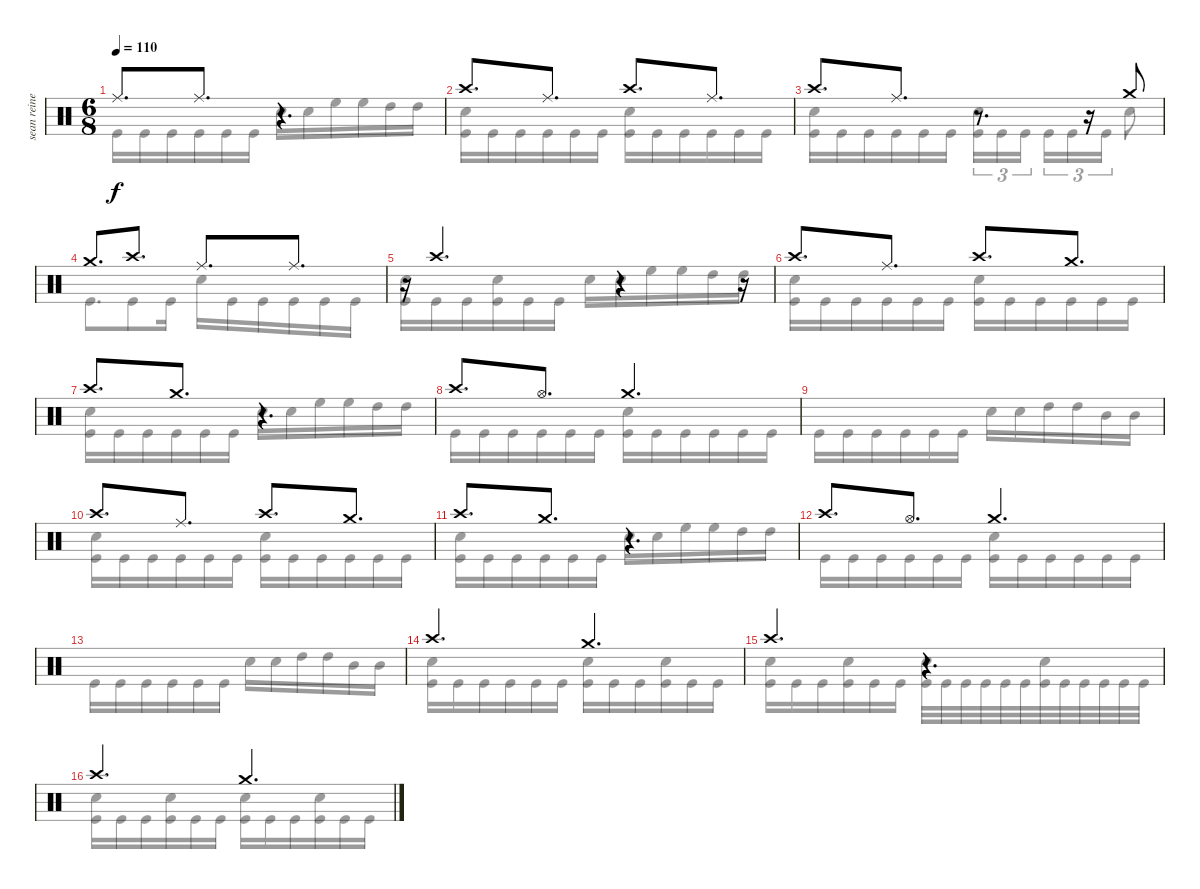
\track ("sean reinert" "sean reine") {instrument percussion}
\staff {score}
\articulation defaults
\voice
\ts (6 8)
\tempo 110
\clef neutral
\ks c "Ride (middle)".8{d dy f} "Ride (middle)".8{d}
r.4{d} |
"Crash high (hit)".8{d} "Ride (middle)".8{d} "Crash high (hit)".8{d} "Ride (middle)".8{d} |
"Crash high (hit)".8{d} "Ride (middle)".8{d} r.8{d} r.16 "Crash medium (hit)".8 |
"Crash medium (hit)".8{d} "Crash high (hit)".8{d} "Ride (middle)".8{d} "Ride (middle)".8{d} |
r.16 "Crash high (hit)".4{d} r.4 r.16 |
"Crash high (hit)".8{d} "Ride (middle)".8{d} "Crash high (hit)".8{d} "Crash medium (hit)".8{d} |
"Crash high (hit)".8{d} "Crash medium (hit)".8{d} r.4{d} |
"Crash high (hit)".8{d} "Hi-Hat (open)".8{d} "Crash medium (hit)".4{d} |
|
"Crash high (hit)".8{d} "Ride (middle)".8{d} "Crash high (hit)".8{d} "Crash medium (hit)".8{d} |
"Crash high (hit)".8{d} "Crash medium (hit)".8{d} r.4{d} |
"Crash high (hit)".8{d} "Hi-Hat (open)".8{d} "Crash medium (hit)".4{d} |
|
"Crash high (hit)".4{d} "Crash medium (hit)".4{d} |
"Crash high (hit)".4{d} r.4{d} |
"Crash high (hit)".4{d} "Crash medium (hit)".4{d}
\voice
\clef neutral
\ottava regular
\simile none
\ks c "Kick (hit)".16{dy f} "Kick (hit)".16 "Kick (hit)".16 "Kick (hit)".16 "Kick (hit)".16 "Kick (hit)".16 "Snare (hit) 2".16 "Snare (hit) 2".16 "High Floor Tom (hit)".16 "High Floor Tom (hit)".16 "High Tom (hit)".16 "High Tom (hit)".16
|
("Snare (hit) 2" "Kick (hit)").16 "Kick (hit)".16 "Kick (hit)".16 "Kick (hit)".16 "Kick (hit)".16 "Kick (hit)".16 ("Snare (hit) 2" "Kick (hit)").16 "Kick (hit)".16 "Kick (hit)".16 "Kick (hit)".16 "Kick (hit)".16 "Kick (hit)".16 |
("Snare (hit) 2" "Kick (hit)").16 "Kick (hit)".16 "Kick (hit)".16 "Kick (hit)".16 "Kick (hit)".16 "Kick (hit)".16 ("Snare (hit) 2" "Kick (hit)").16{tu (3 2)} "Kick (hit)".16{tu (3 2)} "Kick (hit)".16{tu (3 2) beam splitsecondary} "Kick (hit)".16{tu (3 2)} "Kick (hit)".16{tu (3 2)} "Kick (hit)".16{tu (3 2)} "Snare (hit) 2".8 |
"Kick (hit)".8{d} "Kick (hit)".8 "Kick (hit)".16 "Snare (hit) 2".16 "Kick (hit)".16 "Kick (hit)".16 "Kick (hit)".16 "Kick (hit)".16 "Kick (hit)".16 |
("Snare (hit) 2" "Kick (hit)").16 "Kick (hit)".16 "Kick (hit)".16 ("Snare (hit) 2" "Kick (hit)").16 "Kick (hit)".16 "Kick (hit)".16 "Snare (hit) 2".16 "Snare (hit) 2".16 "High Floor Tom (hit)".16 "High Floor Tom (hit)".16 "High Tom (hit)".16 "High Tom (hit)".16 |
("Snare (hit) 2" "Kick (hit)").16 "Kick (hit)".16 "Kick (hit)".16 "Kick (hit)".16 "Kick (hit)".16 "Kick (hit)".16 ("Snare (hit) 2" "Kick (hit)").16 "Kick (hit)".16 "Kick (hit)".16 "Kick (hit)".16 "Kick (hit)".16 "Kick (hit)".16 |
("Snare (hit) 2" "Kick (hit)").16 "Kick (hit)".16 "Kick (hit)".16 "Kick (hit)".16 "Kick (hit)".16 "Kick (hit)".16 "Snare (hit) 2".16 "Snare (hit) 2".16 "High Floor Tom (hit)".16 "High Floor Tom (hit)".16 "High Tom (hit)".16 "High Tom (hit)".16 |
"Kick (hit)".16 "Kick (hit)".16 "Kick (hit)".16 "Kick (hit)".16 "Kick (hit)".16 "Kick (hit)".16 ("Snare (hit) 2" "Kick (hit)").16 "Kick (hit)".16 "Kick (hit)".16 "Kick (hit)".16 "Kick (hit)".16 "Kick (hit)".16 |
"Kick (hit)".16 "Kick (hit)".16 "Kick (hit)".16 "Kick (hit)".16 "Kick (hit)".16 "Kick (hit)".16 "Snare (hit) 2".16 "Snare (hit) 2".16 "High Tom (hit)".16 "High Tom (hit)".16 "Mid Tom (hit)".16 "Mid Tom (hit)".16 |
("Snare (hit) 2" "Kick (hit)").16 "Kick (hit)".16 "Kick (hit)".16 "Kick (hit)".16 "Kick (hit)".16 "Kick (hit)".16 ("Snare (hit) 2" "Kick (hit)").16 "Kick (hit)".16 "Kick (hit)".16 "Kick (hit)".16 "Kick (hit)".16 "Kick (hit)".16 |
("Snare (hit) 2" "Kick (hit)").16 "Kick (hit)".16 "Kick (hit)".16 "Kick (hit)".16 "Kick (hit)".16 "Kick (hit)".16 "Snare (hit) 2".16 "Snare (hit) 2".16 "High Floor Tom (hit)".16 "High Floor Tom (hit)".16 "High Tom (hit)".16 "High Tom (hit)".16 |
"Kick (hit)".16 "Kick (hit)".16 "Kick (hit)".16 "Kick (hit)".16 "Kick (hit)".16 "Kick (hit)".16 ("Snare (hit) 2" "Kick (hit)").16 "Kick (hit)".16 "Kick (hit)".16 "Kick (hit)".16 "Kick (hit)".16 "Kick (hit)".16 |
"Kick (hit)".16 "Kick (hit)".16 "Kick (hit)".16 "Kick (hit)".16 "Kick (hit)".16 "Kick (hit)".16 "Snare (hit) 2".16 "Snare (hit) 2".16 "High Tom (hit)".16 "High Tom (hit)".16 "Mid Tom (hit)".16 "Mid Tom (hit)".16 |
("Snare (hit) 2" "Kick (hit)").16 "Kick (hit)".16 "Kick (hit)".16 "Kick (hit)".16 "Kick (hit)".16 "Kick (hit)".16 ("Snare (hit) 2" "Kick (hit)").16 "Kick (hit)".16 "Kick (hit)".16 ("Snare (hit) 2" "Kick (hit)").16 "Kick (hit)".16 "Kick (hit)".16 |
("Snare (hit) 2" "Kick (hit)").16 "Kick (hit)".16 "Kick (hit)".16 ("Snare (hit) 2" "Kick (hit)").16 "Kick (hit)".16 "Kick (hit)".16 ("Snare (hit) 2" "Kick (hit)").32 "Kick (hit)".32 "Kick (hit)".32 "Kick (hit)".32 "Kick (hit)".32 "Kick (hit)".32 ("Snare (hit) 2" "Kick (hit)").32 "Kick (hit)".32 "Kick (hit)".32 "Kick (hit)".32 "Kick (hit)".32 "Kick (hit)".32 |
("Snare (hit) 2" "Kick (hit)").16 "Kick (hit)".16 "Kick (hit)".16 ("Snare (hit) 2" "Kick (hit)").16 "Kick (hit)".16 "Kick (hit)".16 ("Snare (hit) 2" "Kick (hit)").16 "Kick (hit)".16 "Kick (hit)".16 ("Snare (hit) 2" "Kick (hit)").16 "Kick (hit)".16 "Kick (hit)".16
